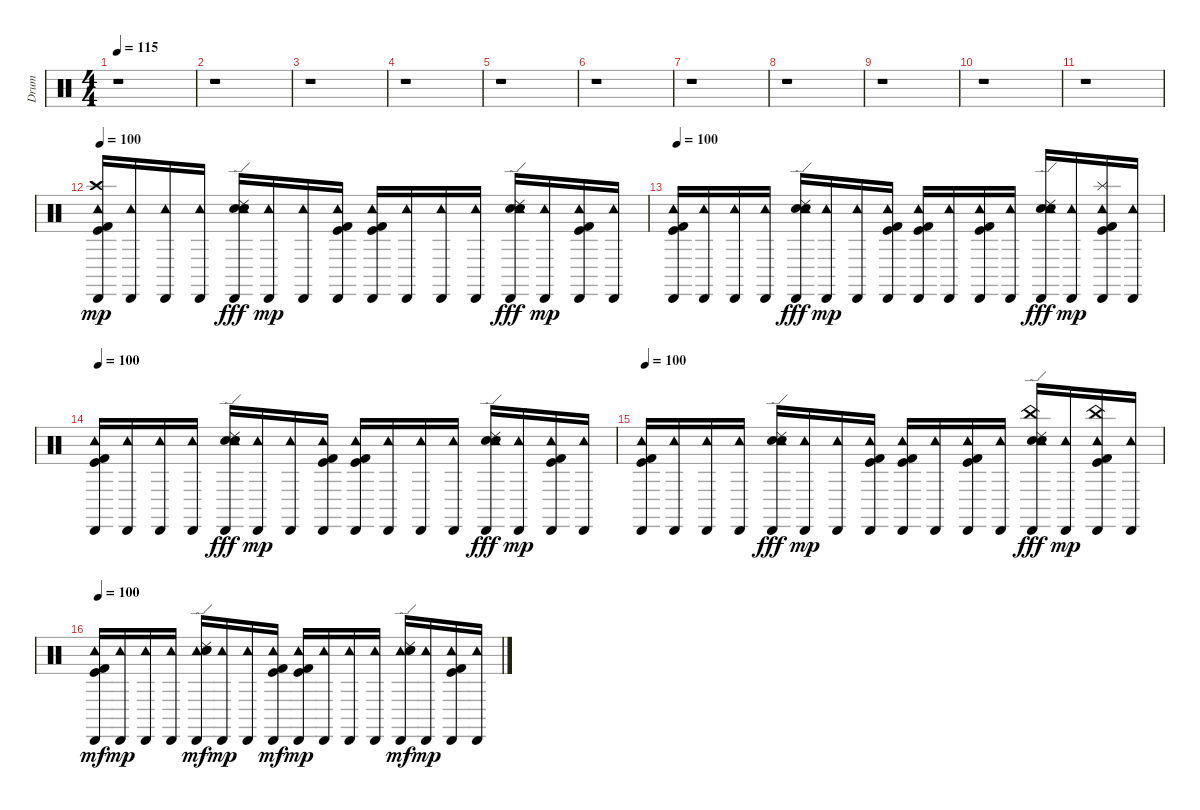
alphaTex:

\track ("Drum" "Drum") {instrument percussion}
\staff {score}
\articulation defaults
\ts (4 4)
\tempo 115
\clef neutral
\ks c
r.1{dy mp} |
r.1 |
r.1 |
r.1 |
r.1 |
r.1 |
r.1 |
r.1 |
r.1 |
r.1 |
r.1 |
\tempo 100
("Kick (hit) 2" "Cabasa (hit)" "Crash high (hit)" "Kick (hit)" "Tambourine (hit)").16 ("Cabasa (hit)" "Tambourine (hit)").16 ("Cabasa (hit)" "Tambourine (hit)").16 ("Cabasa (hit)" "Tambourine (hit)").16 ("Electric Snare (hit)" "Ride (edge) 2" "Cabasa (hit)" "Snare (hit) 2" "Tambourine (hit)").16{dy fff} ("Cabasa (hit)" "Tambourine (hit)").16{dy mp} ("Cabasa (hit)" "Tambourine (hit)").16 ("Kick (hit) 2" "Cabasa (hit)" "Kick (hit)" "Tambourine (hit)").16 ("Kick (hit) 2" "Cabasa (hit)" "Kick (hit)" "Tambourine (hit)").16 ("Cabasa (hit)" "Tambourine (hit)").16 ("Cabasa (hit)" "Tambourine (hit)").16 ("Cabasa (hit)" "Tambourine (hit)").16 ("Electric Snare (hit)" "Ride (edge) 2" "Cabasa (hit)" "Snare (hit) 2" "Tambourine (hit)").16{dy fff} ("Cabasa (hit)" "Tambourine (hit)").16{dy mp} ("Kick (hit) 2" "Cabasa (hit)" "Kick (hit)" "Tambourine (hit)").16 ("Cabasa (hit)" "Tambourine (hit)").16 |
\tempo 100
("Kick (hit) 2" "Cabasa (hit)" "Kick (hit)" "Tambourine (hit)").16 ("Cabasa (hit)" "Tambourine (hit)").16 ("Cabasa (hit)" "Tambourine (hit)").16 ("Cabasa (hit)" "Tambourine (hit)").16 ("Electric Snare (hit)" "Ride (edge) 2" "Cabasa (hit)" "Snare (hit) 2" "Tambourine (hit)").16{dy fff} ("Cabasa (hit)" "Tambourine (hit)").16{dy mp} ("Cabasa (hit)" "Tambourine (hit)").16 ("Kick (hit) 2" "Cabasa (hit)" "Kick (hit)" "Tambourine (hit)").16 ("Kick (hit) 2" "Cabasa (hit)" "Kick (hit)" "Tambourine (hit)").16 ("Cabasa (hit)" "Tambourine (hit)").16 ("Kick (hit) 2" "Cabasa (hit)" "Kick (hit)" "Tambourine (hit)").16 ("Cabasa (hit)" "Tambourine (hit)").16 ("Electric Snare (hit)" "Ride (edge) 2" "Cabasa (hit)" "Snare (hit) 2" "Tambourine (hit)").16{dy fff} ("Cabasa (hit)" "Tambourine (hit)").16{dy mp} ("Kick (hit) 2" "Cabasa (hit)" "Splash (hit)" "Kick (hit)" "Tambourine (hit)").16 ("Cabasa (hit)" "Tambourine (hit)").16 |
\tempo 100
("Kick (hit) 2" "Tambourine (hit)" "Kick (hit)" "Cabasa (hit)").16 ("Tambourine (hit)" "Cabasa (hit)").16 ("Tambourine (hit)" "Cabasa (hit)").16 ("Tambourine (hit)" "Cabasa (hit)").16 ("Electric Snare (hit)" "Ride (edge) 2" "Tambourine (hit)" "Snare (hit) 2" "Cabasa (hit)").16{dy fff} ("Tambourine (hit)" "Cabasa (hit)").16{dy mp} ("Tambourine (hit)" "Cabasa (hit)").16 ("Kick (hit) 2" "Tambourine (hit)" "Kick (hit)" "Cabasa (hit)").16 ("Kick (hit) 2" "Tambourine (hit)" "Kick (hit)" "Cabasa (hit)").16 ("Tambourine (hit)" "Cabasa (hit)").16 ("Tambourine (hit)" "Cabasa (hit)").16 ("Tambourine (hit)" "Cabasa (hit)").16 ("Electric Snare (hit)" "Ride (edge) 2" "Tambourine (hit)" "Snare (hit) 2" "Cabasa (hit)").16{dy fff} ("Tambourine (hit)" "Cabasa (hit)").16{dy mp} ("Kick (hit) 2" "Tambourine (hit)" "Kick (hit)" "Cabasa (hit)").16 ("Tambourine (hit)" "Cabasa (hit)").16 |
\tempo 100
("Kick (hit) 2" "Tambourine (hit)" "Kick (hit)" "Cabasa (hit)").16 ("Tambourine (hit)" "Cabasa (hit)").16 ("Tambourine (hit)" "Cabasa (hit)").16 ("Tambourine (hit)" "Cabasa (hit)").16 ("Electric Snare (hit)" "Ride (edge) 2" "Tambourine (hit)" "Snare (hit) 2" "Cabasa (hit)").16{dy fff} ("Tambourine (hit)" "Cabasa (hit)").16{dy mp} ("Tambourine (hit)" "Cabasa (hit)").16 ("Kick (hit) 2" "Tambourine (hit)" "Kick (hit)" "Cabasa (hit)").16 ("Kick (hit) 2" "Tambourine (hit)" "Kick (hit)" "Cabasa (hit)").16 ("Tambourine (hit)" "Cabasa (hit)").16 ("Kick (hit) 2" "Tambourine (hit)" "Kick (hit)" "Cabasa (hit)").16 ("Tambourine (hit)" "Cabasa (hit)").16 ("Electric Snare (hit)" "China (hit)" "Ride (edge) 2" "Tambourine (hit)" "Snare (hit) 2" "Cabasa (hit)").16{dy fff} ("Tambourine (hit)" "Cabasa (hit)").16{dy mp} ("Kick (hit) 2" "China (hit)" "Tambourine (hit)" "Kick (hit)" "Cabasa (hit)").16 ("Tambourine (hit)" "Cabasa (hit)").16 |
\tempo 100
("Tambourine (hit)" "Kick (hit)" "Cabasa (hit)" "Kick (hit) 2").16{dy mf} ("Tambourine (hit)" "Cabasa (hit)").16{dy mp} ("Tambourine (hit)" "Cabasa (hit)").16 ("Tambourine (hit)" "Cabasa (hit)").16 ("Tambourine (hit)" "Snare (hit) 2" "Cabasa (hit)" "Ride (edge) 2" "Electric Snare (hit)").16{dy mf} ("Tambourine (hit)" "Cabasa (hit)").16{dy mp} ("Tambourine (hit)" "Cabasa (hit)").16 ("Tambourine (hit)" "Kick (hit)" "Cabasa (hit)" "Kick (hit) 2").16{dy mf} ("Tambourine (hit)" "Kick (hit)" "Cabasa (hit)" "Kick (hit) 2").16{dy mp} ("Tambourine (hit)" "Cabasa (hit)").16 ("Tambourine (hit)" "Cabasa (hit)").16 ("Tambourine (hit)" "Cabasa (hit)").16 ("Tambourine (hit)" "Snare (hit) 2" "Cabasa (hit)" "Ride (edge) 2" "Electric Snare (hit)").16{dy mf} ("Tambourine (hit)" "Cabasa (hit)").16{dy mp} ("Tambourine (hit)" "Kick (hit)" "Cabasa (hit)" "Kick (hit) 2").16 ("Tambourine (hit)" "Cabasa (hit)").16
